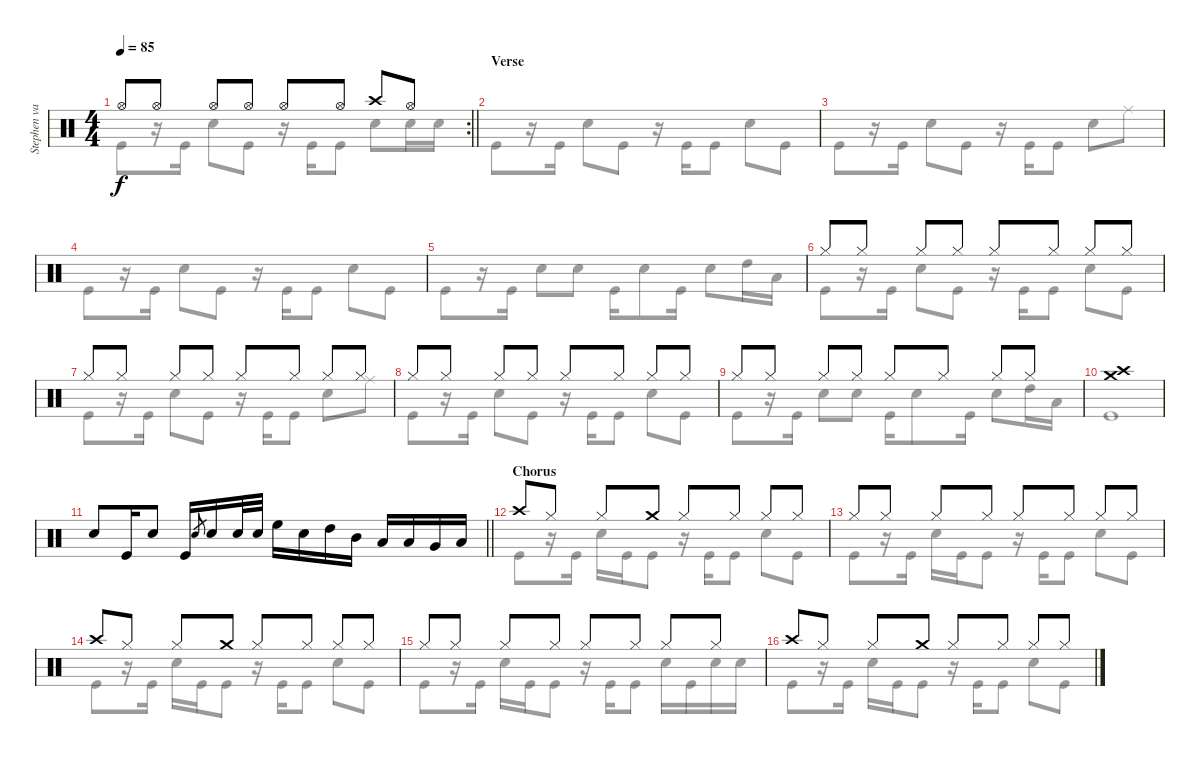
\track ("Stephen van Haestregt - Drums" "Stephen va") {instrument percussion}
\staff {score}
\articulation defaults
\voice
\rc 2
\ts (4 4)
\tempo 85
\clef neutral
\barLineRight lightlight
\ks c "Hi-Hat (open)".8{dy f} "Hi-Hat (open)".8 "Hi-Hat (open)".8 "Hi-Hat (open)".8 "Hi-Hat (open)".8 "Hi-Hat (open)".8 "Crash high (hit)".8 "Hi-Hat (open)".8
|
\section ("" "Verse")
|
|
|
|
"Hi-Hat (closed)".8 "Hi-Hat (closed)".8 "Hi-Hat (closed)".8 "Hi-Hat (closed)".8 "Hi-Hat (closed)".8 "Hi-Hat (closed)".8 "Hi-Hat (closed)".8 "Hi-Hat (closed)".8 |
"Hi-Hat (closed)".8 "Hi-Hat (closed)".8 "Hi-Hat (closed)".8 "Hi-Hat (closed)".8 "Hi-Hat (closed)".8 "Hi-Hat (closed)".8 "Hi-Hat (closed)".8 "Hi-Hat (closed)".8 |
"Hi-Hat (closed)".8 "Hi-Hat (closed)".8 "Hi-Hat (closed)".8 "Hi-Hat (closed)".8 "Hi-Hat (closed)".8 "Hi-Hat (closed)".8 "Hi-Hat (closed)".8 "Hi-Hat (closed)".8 |
"Hi-Hat (closed)".8 "Hi-Hat (closed)".8 "Hi-Hat (closed)".8 "Hi-Hat (closed)".8 "Hi-Hat (closed)".8 "Hi-Hat (closed)".8 "Hi-Hat (closed)".8 "Hi-Hat (closed)".8 |
("Crash medium (hit)" "Crash high (hit)").1 |
\barLineRight lightlight "Snare (hit) 2".8 "Kick (hit)".16 "Snare (hit) 2".8 "Kick (hit)".16 "Snare (hit) 2".8{gr} "Snare (hit) 2".16 "Snare (hit) 2".32 "Snare (hit) 2".32 "High Floor Tom (hit)".16 "Snare (hit) 2".16 "High Tom (hit)".16 "Mid Tom (hit)".16 "Low Tom (hit)".16 "Low Tom (hit)".16 "Very Low Tom (hit)".16 "Low Floor Tom (hit)".16
|
\section ("" "Chorus")
"Crash high (hit)".8 "Hi-Hat (closed)".8 "Hi-Hat (closed)".8 "Crash medium (hit)".8 "Hi-Hat (closed)".8 "Hi-Hat (closed)".8 "Hi-Hat (closed)".8 "Hi-Hat (closed)".8 |
"Hi-Hat (closed)".8 "Hi-Hat (closed)".8 "Hi-Hat (closed)".8 "Hi-Hat (closed)".8 "Hi-Hat (closed)".8 "Hi-Hat (closed)".8 "Hi-Hat (closed)".8 "Hi-Hat (closed)".8 |
"Crash high (hit)".8 "Hi-Hat (closed)".8 "Hi-Hat (closed)".8 "Crash medium (hit)".8 "Hi-Hat (closed)".8 "Hi-Hat (closed)".8 "Hi-Hat (closed)".8 "Hi-Hat (closed)".8 |
"Hi-Hat (closed)".8 "Hi-Hat (closed)".8 "Hi-Hat (closed)".8 "Hi-Hat (closed)".8 "Hi-Hat (closed)".8 "Hi-Hat (closed)".8 "Hi-Hat (closed)".8 "Hi-Hat (closed)".8 |
"Crash high (hit)".8 "Hi-Hat (closed)".8 "Hi-Hat (closed)".8 "Crash medium (hit)".8 "Hi-Hat (closed)".8 "Hi-Hat (closed)".8 "Hi-Hat (closed)".8 "Hi-Hat (closed)".8
\voice
\clef neutral
\ottava regular
\simile none
\barLineRight lightlight
\ks c "Kick (hit)".8{dy f}
r.16 "Kick (hit)".16 "Snare (hit) 2".8 "Kick (hit)".8 r.16 "Kick (hit)".16 "Kick (hit)".8 "Snare (hit) 2".8 "Snare (hit) 2".16 "Snare (hit) 2".16 |
"Kick (hit)".8 r.16 "Kick (hit)".16 "Snare (hit) 2".8 "Kick (hit)".8 r.16 "Kick (hit)".16 "Kick (hit)".8 "Snare (hit) 2".8 "Kick (hit)".8 |
"Kick (hit)".8 r.16 "Kick (hit)".16 "Snare (hit) 2".8 "Kick (hit)".8 r.16 "Kick (hit)".16 "Kick (hit)".8 "Snare (hit) 2".8 "Ride (middle)".8 |
"Kick (hit)".8 r.16 "Kick (hit)".16 "Snare (hit) 2".8 "Kick (hit)".8 r.16 "Kick (hit)".16 "Kick (hit)".8 "Snare (hit) 2".8 "Kick (hit)".8 |
"Kick (hit)".8 r.16 "Kick (hit)".16 "Snare (hit) 2".8 "Snare (hit) 2".8 "Kick (hit)".16 "Snare (hit) 2".8 "Kick (hit)".16 "Snare (hit) 2".8 "High Tom (hit)".16 "Low Tom (hit)".16 |
"Kick (hit)".8 r.16 "Kick (hit)".16 "Snare (hit) 2".8 "Kick (hit)".8 r.16 "Kick (hit)".16 "Kick (hit)".8 "Snare (hit) 2".8 "Kick (hit)".8 |
"Kick (hit)".8 r.16 "Kick (hit)".16 "Snare (hit) 2".8 "Kick (hit)".8 r.16 "Kick (hit)".16 "Kick (hit)".8 "Snare (hit) 2".8 "Ride (middle)".8 |
"Kick (hit)".8 r.16 "Kick (hit)".16 "Snare (hit) 2".8 "Kick (hit)".8 r.16 "Kick (hit)".16 "Kick (hit)".8 "Snare (hit) 2".8 "Kick (hit)".8 |
"Kick (hit)".8 r.16 "Kick (hit)".16 "Snare (hit) 2".8 "Snare (hit) 2".8 "Kick (hit)".16 "Snare (hit) 2".8 "Kick (hit)".16 "Snare (hit) 2".8 "High Tom (hit)".16 "Low Tom (hit)".16 |
"Kick (hit)".1 |
\barLineRight lightlight
|
"Kick (hit)".8 r.16 "Kick (hit)".16 "Snare (hit) 2".16 "Kick (hit)".16 "Kick (hit)".8 r.16 "Kick (hit)".16 "Kick (hit)".8 "Snare (hit) 2".8 "Kick (hit)".8 |
"Kick (hit)".8 r.16 "Kick (hit)".16 "Snare (hit) 2".16 "Kick (hit)".16 "Kick (hit)".8 r.16 "Kick (hit)".16 "Kick (hit)".8 "Snare (hit) 2".8 "Kick (hit)".8 |
"Kick (hit)".8 r.16 "Kick (hit)".16 "Snare (hit) 2".16 "Kick (hit)".16 "Kick (hit)".8 r.16 "Kick (hit)".16 "Kick (hit)".8 "Snare (hit) 2".8 "Kick (hit)".8 |
"Kick (hit)".8 r.16 "Kick (hit)".16 "Snare (hit) 2".16 "Kick (hit)".16 "Kick (hit)".8 r.16 "Kick (hit)".16 "Kick (hit)".8 "Snare (hit) 2".16 "Kick (hit)".16 "Snare (hit) 2".16 "Snare (hit) 2".16 |
"Kick (hit)".8 r.16 "Kick (hit)".16 "Snare (hit) 2".16 "Kick (hit)".16 "Kick (hit)".8 r.16 "Kick (hit)".16 "Kick (hit)".8 "Snare (hit) 2".8 "Kick (hit)".8
